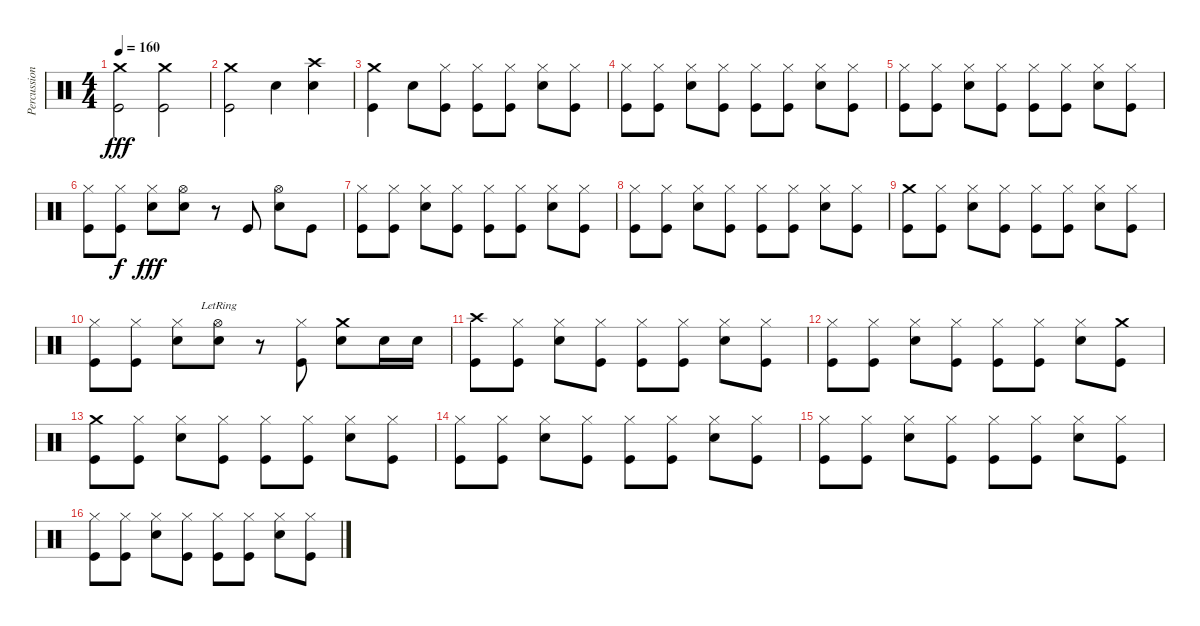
\track ("Percussions" "Percussion") {instrument percussion}
\staff {score}
\articulation defaults
\ts (4 4)
\tempo 160
\clef neutral
\ks c
("Crash medium (hit)" "Kick (hit)").2{dy fff} ("Crash medium (hit)" "Kick (hit)").2 |
("Crash medium (hit)" "Kick (hit)").2 "Electric Snare (hit)".4 ("Crash high (hit)" "Electric Snare (hit)").4 |
("Crash medium (hit)" "Kick (hit)").4 "Electric Snare (hit)".8 ("Hi-Hat (closed)" "Kick (hit)").8 ("Hi-Hat (closed)" "Kick (hit)").8 ("Hi-Hat (closed)" "Kick (hit)").8 ("Hi-Hat (closed)" "Electric Snare (hit)").8 ("Hi-Hat (closed)" "Kick (hit)").8 |
("Hi-Hat (closed)" "Kick (hit)").8 ("Hi-Hat (closed)" "Kick (hit)").8 ("Hi-Hat (closed)" "Electric Snare (hit)").8 ("Hi-Hat (closed)" "Kick (hit)").8 ("Hi-Hat (closed)" "Kick (hit)").8 ("Hi-Hat (closed)" "Kick (hit)").8 ("Hi-Hat (closed)" "Electric Snare (hit)").8 ("Hi-Hat (closed)" "Kick (hit)").8 |
("Hi-Hat (closed)" "Kick (hit)").8 ("Hi-Hat (closed)" "Kick (hit)").8 ("Hi-Hat (closed)" "Electric Snare (hit)").8 ("Hi-Hat (closed)" "Kick (hit)").8 ("Hi-Hat (closed)" "Kick (hit)").8 ("Hi-Hat (closed)" "Kick (hit)").8 ("Hi-Hat (closed)" "Electric Snare (hit)").8 ("Hi-Hat (closed)" "Kick (hit)").8 |
("Hi-Hat (closed)" "Kick (hit)").8 ("Hi-Hat (closed)" "Kick (hit)").8{dy f} ("Hi-Hat (closed)" "Electric Snare (hit)").8{dy fff} ("Hi-Hat (open)" "Electric Snare (hit)").8 r.8 "Kick (hit)".8 ("Hi-Hat (open)" "Electric Snare (hit)").8 "Kick (hit)".8 |
("Hi-Hat (closed)" "Kick (hit)").8 ("Hi-Hat (closed)" "Kick (hit)").8 ("Hi-Hat (closed)" "Electric Snare (hit)").8 ("Hi-Hat (closed)" "Kick (hit)").8 ("Hi-Hat (closed)" "Kick (hit)").8 ("Hi-Hat (closed)" "Kick (hit)").8 ("Hi-Hat (closed)" "Electric Snare (hit)").8 ("Hi-Hat (closed)" "Kick (hit)").8 |
("Hi-Hat (closed)" "Kick (hit)").8 ("Hi-Hat (closed)" "Kick (hit)").8 ("Hi-Hat (closed)" "Electric Snare (hit)").8 ("Hi-Hat (closed)" "Kick (hit)").8 ("Hi-Hat (closed)" "Kick (hit)").8 ("Hi-Hat (closed)" "Kick (hit)").8 ("Hi-Hat (closed)" "Electric Snare (hit)").8 ("Hi-Hat (closed)" "Kick (hit)").8 |
("Crash medium (hit)" "Kick (hit)").8 ("Hi-Hat (closed)" "Kick (hit)").8 ("Hi-Hat (closed)" "Electric Snare (hit)").8 ("Hi-Hat (closed)" "Kick (hit)").8 ("Hi-Hat (closed)" "Kick (hit)").8 ("Hi-Hat (closed)" "Kick (hit)").8 ("Hi-Hat (closed)" "Electric Snare (hit)").8 ("Hi-Hat (closed)" "Kick (hit)").8 |
("Hi-Hat (closed)" "Kick (hit)").8 ("Hi-Hat (closed)" "Kick (hit)").8 ("Hi-Hat (closed)" "Electric Snare (hit)").8 ("Hi-Hat (open)"{lr} "Electric Snare (hit)").8 r.8 ("Hi-Hat (closed)" "Kick (hit)").8 ("Crash medium (hit)" "Electric Snare (hit)").8 "Electric Snare (hit)".16 "Electric Snare (hit)".16 |
("Crash high (hit)" "Kick (hit)").8 ("Hi-Hat (closed)" "Kick (hit)").8 ("Hi-Hat (closed)" "Electric Snare (hit)").8 ("Hi-Hat (closed)" "Kick (hit)").8 ("Hi-Hat (closed)" "Kick (hit)").8 ("Hi-Hat (closed)" "Kick (hit)").8 ("Hi-Hat (closed)" "Electric Snare (hit)").8 ("Hi-Hat (closed)" "Kick (hit)").8 |
("Hi-Hat (closed)" "Kick (hit)").8 ("Hi-Hat (closed)" "Kick (hit)").8 ("Hi-Hat (closed)" "Electric Snare (hit)").8 ("Hi-Hat (closed)" "Kick (hit)").8 ("Hi-Hat (closed)" "Kick (hit)").8 ("Hi-Hat (closed)" "Kick (hit)").8 ("Hi-Hat (closed)" "Electric Snare (hit)").8 ("Crash medium (hit)" "Kick (hit)").8 |
("Crash medium (hit)" "Kick (hit)").8 ("Hi-Hat (closed)" "Kick (hit)").8 ("Hi-Hat (closed)" "Electric Snare (hit)").8 ("Hi-Hat (closed)" "Kick (hit)").8 ("Hi-Hat (closed)" "Kick (hit)").8 ("Hi-Hat (closed)" "Kick (hit)").8 ("Hi-Hat (closed)" "Electric Snare (hit)").8 ("Hi-Hat (closed)" "Kick (hit)").8 |
("Hi-Hat (closed)" "Kick (hit)").8 ("Hi-Hat (closed)" "Kick (hit)").8 ("Hi-Hat (closed)" "Electric Snare (hit)").8 ("Hi-Hat (closed)" "Kick (hit)").8 ("Hi-Hat (closed)" "Kick (hit)").8 ("Hi-Hat (closed)" "Kick (hit)").8 ("Hi-Hat (closed)" "Electric Snare (hit)").8 ("Hi-Hat (closed)" "Kick (hit)").8 |
("Hi-Hat (closed)" "Kick (hit)").8 ("Hi-Hat (closed)" "Kick (hit)").8 ("Hi-Hat (closed)" "Electric Snare (hit)").8 ("Hi-Hat (closed)" "Kick (hit)").8 ("Hi-Hat (closed)" "Kick (hit)").8 ("Hi-Hat (closed)" "Kick (hit)").8 ("Hi-Hat (closed)" "Electric Snare (hit)").8 ("Hi-Hat (closed)" "Kick (hit)").8 |
("Hi-Hat (closed)" "Kick (hit)").8 ("Hi-Hat (closed)" "Kick (hit)").8 ("Hi-Hat (closed)" "Electric Snare (hit)").8 ("Hi-Hat (closed)" "Kick (hit)").8 ("Hi-Hat (closed)" "Kick (hit)").8 ("Hi-Hat (closed)" "Kick (hit)").8 ("Hi-Hat (closed)" "Electric Snare (hit)").8 ("Hi-Hat (closed)" "Kick (hit)").8
